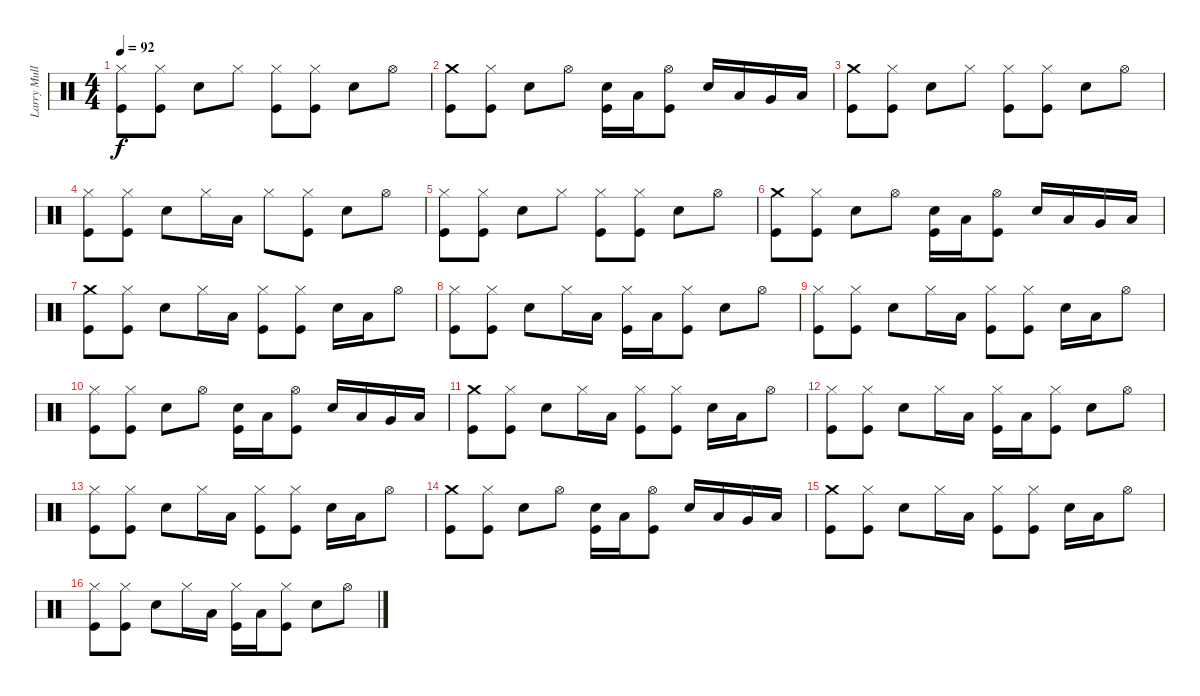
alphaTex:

\track ("Larry Mullen Junior" "Larry Mull") {instrument percussion}
\staff {score}
\articulation defaults
\ts (4 4)
\tempo 92
\clef neutral
\ks c
("Hi-Hat (closed)" "Kick (hit)").8{dy f} ("Hi-Hat (closed)" "Kick (hit)").8 "Electric Snare (hit)".8 "Hi-Hat (closed)".8 ("Hi-Hat (closed)" "Kick (hit)").8 ("Hi-Hat (closed)" "Kick (hit)").8 "Electric Snare (hit)".8 "Hi-Hat (open)".8 |
("Crash medium (hit)" "Kick (hit)").8 ("Hi-Hat (closed)" "Kick (hit)").8 "Electric Snare (hit)".8 "Hi-Hat (open)".8 ("Electric Snare (hit)" "Kick (hit)").16 "Low Floor Tom (hit)".16 ("Hi-Hat (open)" "Kick (hit)").8 "Electric Snare (hit)".16 "Low Floor Tom (hit)".16 "Very Low Tom (hit)".16 "Low Floor Tom (hit)".16 |
("Crash medium (hit)" "Kick (hit)").8 ("Hi-Hat (closed)" "Kick (hit)").8 "Electric Snare (hit)".8 "Hi-Hat (closed)".8 ("Hi-Hat (closed)" "Kick (hit)").8 ("Hi-Hat (closed)" "Kick (hit)").8 "Electric Snare (hit)".8 "Hi-Hat (open)".8 |
("Hi-Hat (closed)" "Kick (hit)").8 ("Hi-Hat (closed)" "Kick (hit)").8 "Electric Snare (hit)".8 "Hi-Hat (closed)".16 "Low Floor Tom (hit)".16 "Hi-Hat (closed)".8 ("Hi-Hat (closed)" "Kick (hit)").8 "Electric Snare (hit)".8 "Hi-Hat (open)".8 |
("Hi-Hat (closed)" "Kick (hit)").8 ("Hi-Hat (closed)" "Kick (hit)").8 "Electric Snare (hit)".8 "Hi-Hat (closed)".8 ("Hi-Hat (closed)" "Kick (hit)").8 ("Hi-Hat (closed)" "Kick (hit)").8 "Electric Snare (hit)".8 "Hi-Hat (open)".8 |
("Crash medium (hit)" "Kick (hit)").8 ("Hi-Hat (closed)" "Kick (hit)").8 "Electric Snare (hit)".8 "Hi-Hat (open)".8 ("Electric Snare (hit)" "Kick (hit)").16 "Low Floor Tom (hit)".16 ("Hi-Hat (open)" "Kick (hit)").8 "Electric Snare (hit)".16 "Low Floor Tom (hit)".16 "Very Low Tom (hit)".16 "Low Floor Tom (hit)".16 |
("Crash medium (hit)" "Kick (hit)").8 ("Hi-Hat (closed)" "Kick (hit)").8 "Electric Snare (hit)".8 "Hi-Hat (closed)".16 "Low Floor Tom (hit)".16 ("Hi-Hat (closed)" "Kick (hit)").8 ("Hi-Hat (closed)" "Kick (hit)").8 "Electric Snare (hit)".16 "Low Floor Tom (hit)".16 "Hi-Hat (open)".8 |
("Hi-Hat (closed)" "Kick (hit)").8 ("Hi-Hat (closed)" "Kick (hit)").8 "Electric Snare (hit)".8 "Hi-Hat (closed)".16 "Low Floor Tom (hit)".16 ("Hi-Hat (closed)" "Kick (hit)").16 "Low Floor Tom (hit)".16 ("Hi-Hat (closed)" "Kick (hit)").8 "Electric Snare (hit)".8 "Hi-Hat (open)".8 |
("Hi-Hat (closed)" "Kick (hit)").8 ("Hi-Hat (closed)" "Kick (hit)").8 "Electric Snare (hit)".8 "Hi-Hat (closed)".16 "Low Floor Tom (hit)".16 ("Hi-Hat (closed)" "Kick (hit)").8 ("Hi-Hat (closed)" "Kick (hit)").8 "Electric Snare (hit)".16 "Low Floor Tom (hit)".16 "Hi-Hat (open)".8 |
("Hi-Hat (closed)" "Kick (hit)").8 ("Hi-Hat (closed)" "Kick (hit)").8 "Electric Snare (hit)".8 "Hi-Hat (open)".8 ("Electric Snare (hit)" "Kick (hit)").16 "Low Floor Tom (hit)".16 ("Hi-Hat (open)" "Kick (hit)").8 "Electric Snare (hit)".16 "Low Floor Tom (hit)".16 "Very Low Tom (hit)".16 "Low Floor Tom (hit)".16 |
("Crash medium (hit)" "Kick (hit)").8 ("Hi-Hat (closed)" "Kick (hit)").8 "Electric Snare (hit)".8 "Hi-Hat (closed)".16 "Low Floor Tom (hit)".16 ("Hi-Hat (closed)" "Kick (hit)").8 ("Hi-Hat (closed)" "Kick (hit)").8 "Electric Snare (hit)".16 "Low Floor Tom (hit)".16 "Hi-Hat (open)".8 |
("Hi-Hat (closed)" "Kick (hit)").8 ("Hi-Hat (closed)" "Kick (hit)").8 "Electric Snare (hit)".8 "Hi-Hat (closed)".16 "Low Floor Tom (hit)".16 ("Hi-Hat (closed)" "Kick (hit)").16 "Low Floor Tom (hit)".16 ("Hi-Hat (closed)" "Kick (hit)").8 "Electric Snare (hit)".8 "Hi-Hat (open)".8 |
("Hi-Hat (closed)" "Kick (hit)").8 ("Hi-Hat (closed)" "Kick (hit)").8 "Electric Snare (hit)".8 "Hi-Hat (closed)".16 "Low Floor Tom (hit)".16 ("Hi-Hat (closed)" "Kick (hit)").8 ("Hi-Hat (closed)" "Kick (hit)").8 "Electric Snare (hit)".16 "Low Floor Tom (hit)".16 "Hi-Hat (open)".8 |
("Crash medium (hit)" "Kick (hit)").8 ("Hi-Hat (closed)" "Kick (hit)").8 "Electric Snare (hit)".8 "Hi-Hat (open)".8 ("Electric Snare (hit)" "Kick (hit)").16 "Low Floor Tom (hit)".16 ("Hi-Hat (open)" "Kick (hit)").8 "Electric Snare (hit)".16 "Low Floor Tom (hit)".16 "Very Low Tom (hit)".16 "Low Floor Tom (hit)".16 |
("Crash medium (hit)" "Kick (hit)").8 ("Hi-Hat (closed)" "Kick (hit)").8 "Electric Snare (hit)".8 "Hi-Hat (closed)".16 "Low Floor Tom (hit)".16 ("Hi-Hat (closed)" "Kick (hit)").8 ("Hi-Hat (closed)" "Kick (hit)").8 "Electric Snare (hit)".16 "Low Floor Tom (hit)".16 "Hi-Hat (open)".8 |
("Hi-Hat (closed)" "Kick (hit)").8 ("Hi-Hat (closed)" "Kick (hit)").8 "Electric Snare (hit)".8 "Hi-Hat (closed)".16 "Low Floor Tom (hit)".16 ("Hi-Hat (closed)" "Kick (hit)").16 "Low Floor Tom (hit)".16 ("Hi-Hat (closed)" "Kick (hit)").8 "Electric Snare (hit)".8 "Hi-Hat (open)".8
